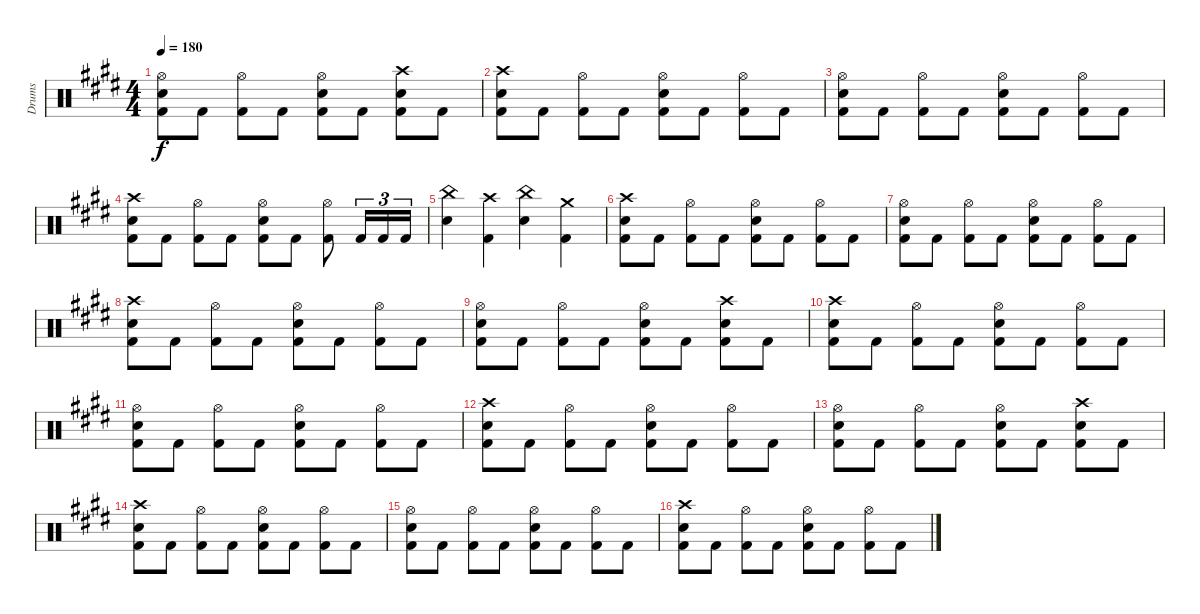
\track ("Drums" "Drums") {instrument percussion}
\staff {score}
\articulation defaults
\ts (4 4)
\tempo 180
\clef neutral
\ks c#minor
("Hi-Hat (open)" "Snare (hit) 2" "Kick (hit) 2").8{dy f} "Kick (hit) 2".8 ("Hi-Hat (open)" "Kick (hit) 2").8 "Kick (hit) 2".8 ("Hi-Hat (open)" "Snare (hit) 2" "Kick (hit) 2").8 "Kick (hit) 2".8 ("Crash high (hit)" "Snare (hit) 2" "Kick (hit) 2").8 "Kick (hit) 2".8 |
("Crash high (hit)" "Snare (hit) 2" "Kick (hit) 2").8 "Kick (hit) 2".8 ("Hi-Hat (open)" "Kick (hit) 2").8 "Kick (hit) 2".8 ("Hi-Hat (open)" "Snare (hit) 2" "Kick (hit) 2").8 "Kick (hit) 2".8 ("Hi-Hat (open)" "Kick (hit) 2").8 "Kick (hit) 2".8 |
("Hi-Hat (open)" "Snare (hit) 2" "Kick (hit) 2").8 "Kick (hit) 2".8 ("Hi-Hat (open)" "Kick (hit) 2").8 "Kick (hit) 2".8 ("Hi-Hat (open)" "Snare (hit) 2" "Kick (hit) 2").8 "Kick (hit) 2".8 ("Hi-Hat (open)" "Kick (hit) 2").8 "Kick (hit) 2".8 |
("Crash high (hit)" "Snare (hit) 2" "Kick (hit) 2").8 "Kick (hit) 2".8 ("Hi-Hat (open)" "Kick (hit) 2").8 "Kick (hit) 2".8 ("Hi-Hat (open)" "Snare (hit) 2" "Kick (hit) 2").8 "Kick (hit) 2".8 ("Hi-Hat (open)" "Kick (hit) 2").8 "Kick (hit) 2".16{tu (3 2)} "Kick (hit) 2".16{tu (3 2)} "Kick (hit) 2".16{tu (3 2)} |
("China (hit)" "Snare (hit) 2").4 ("Crash high (hit)" "Kick (hit) 2").4 ("China (hit)" "Snare (hit) 2").4 ("Crash medium (hit)" "Kick (hit) 2").4 |
("Crash high (hit)" "Snare (hit) 2" "Kick (hit) 2").8 "Kick (hit) 2".8 ("Hi-Hat (open)" "Kick (hit) 2").8 "Kick (hit) 2".8 ("Hi-Hat (open)" "Snare (hit) 2" "Kick (hit) 2").8 "Kick (hit) 2".8 ("Hi-Hat (open)" "Kick (hit) 2").8 "Kick (hit) 2".8 |
("Hi-Hat (open)" "Snare (hit) 2" "Kick (hit) 2").8 "Kick (hit) 2".8 ("Hi-Hat (open)" "Kick (hit) 2").8 "Kick (hit) 2".8 ("Hi-Hat (open)" "Snare (hit) 2" "Kick (hit) 2").8 "Kick (hit) 2".8 ("Hi-Hat (open)" "Kick (hit) 2").8 "Kick (hit) 2".8 |
("Crash high (hit)" "Snare (hit) 2" "Kick (hit) 2").8 "Kick (hit) 2".8 ("Hi-Hat (open)" "Kick (hit) 2").8 "Kick (hit) 2".8 ("Hi-Hat (open)" "Snare (hit) 2" "Kick (hit) 2").8 "Kick (hit) 2".8 ("Hi-Hat (open)" "Kick (hit) 2").8 "Kick (hit) 2".8 |
("Hi-Hat (open)" "Snare (hit) 2" "Kick (hit) 2").8 "Kick (hit) 2".8 ("Hi-Hat (open)" "Kick (hit) 2").8 "Kick (hit) 2".8 ("Hi-Hat (open)" "Snare (hit) 2" "Kick (hit) 2").8 "Kick (hit) 2".8 ("Crash high (hit)" "Snare (hit) 2" "Kick (hit) 2").8 "Kick (hit) 2".8 |
("Crash high (hit)" "Snare (hit) 2" "Kick (hit) 2").8 "Kick (hit) 2".8 ("Hi-Hat (open)" "Kick (hit) 2").8 "Kick (hit) 2".8 ("Hi-Hat (open)" "Snare (hit) 2" "Kick (hit) 2").8 "Kick (hit) 2".8 ("Hi-Hat (open)" "Kick (hit) 2").8 "Kick (hit) 2".8 |
("Hi-Hat (open)" "Snare (hit) 2" "Kick (hit) 2").8 "Kick (hit) 2".8 ("Hi-Hat (open)" "Kick (hit) 2").8 "Kick (hit) 2".8 ("Hi-Hat (open)" "Snare (hit) 2" "Kick (hit) 2").8 "Kick (hit) 2".8 ("Hi-Hat (open)" "Kick (hit) 2").8 "Kick (hit) 2".8 |
("Crash high (hit)" "Snare (hit) 2" "Kick (hit) 2").8 "Kick (hit) 2".8 ("Hi-Hat (open)" "Kick (hit) 2").8 "Kick (hit) 2".8 ("Hi-Hat (open)" "Snare (hit) 2" "Kick (hit) 2").8 "Kick (hit) 2".8 ("Hi-Hat (open)" "Kick (hit) 2").8 "Kick (hit) 2".8 |
("Hi-Hat (open)" "Snare (hit) 2" "Kick (hit) 2").8 "Kick (hit) 2".8 ("Hi-Hat (open)" "Kick (hit) 2").8 "Kick (hit) 2".8 ("Hi-Hat (open)" "Snare (hit) 2" "Kick (hit) 2").8 "Kick (hit) 2".8 ("Crash high (hit)" "Snare (hit) 2" "Kick (hit) 2").8 "Kick (hit) 2".8 |
("Crash high (hit)" "Snare (hit) 2" "Kick (hit) 2").8 "Kick (hit) 2".8 ("Hi-Hat (open)" "Kick (hit) 2").8 "Kick (hit) 2".8 ("Hi-Hat (open)" "Snare (hit) 2" "Kick (hit) 2").8 "Kick (hit) 2".8 ("Hi-Hat (open)" "Kick (hit) 2").8 "Kick (hit) 2".8 |
("Hi-Hat (open)" "Snare (hit) 2" "Kick (hit) 2").8 "Kick (hit) 2".8 ("Hi-Hat (open)" "Kick (hit) 2").8 "Kick (hit) 2".8 ("Hi-Hat (open)" "Snare (hit) 2" "Kick (hit) 2").8 "Kick (hit) 2".8 ("Hi-Hat (open)" "Kick (hit) 2").8 "Kick (hit) 2".8 |
("Crash high (hit)" "Snare (hit) 2" "Kick (hit) 2").8 "Kick (hit) 2".8 ("Hi-Hat (open)" "Kick (hit) 2").8 "Kick (hit) 2".8 ("Hi-Hat (open)" "Snare (hit) 2" "Kick (hit) 2").8 "Kick (hit) 2".8 ("Hi-Hat (open)" "Kick (hit) 2").8 "Kick (hit) 2".8
